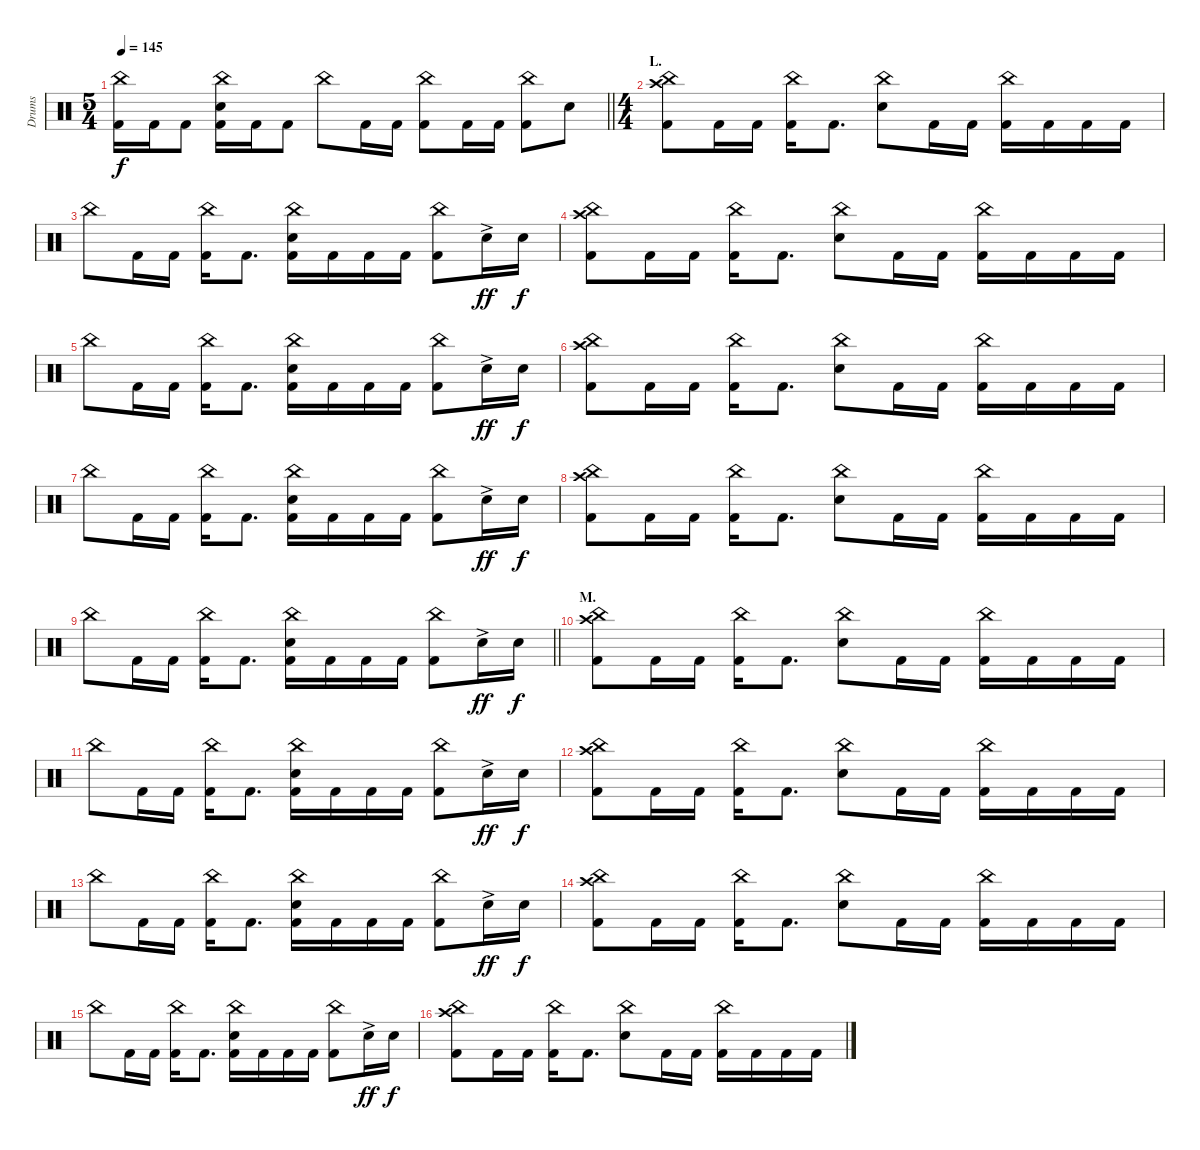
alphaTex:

\track ("Drums" "Drums") {instrument percussion}
\staff {score}
\articulation defaults
\ts (5 4)
\tempo 145
\clef neutral
\barLineRight lightlight
\ks c
("China (hit)" "Kick (hit) 2").16{dy f} "Kick (hit) 2".16 "Kick (hit) 2".8 ("China (hit)" "Electric Snare (hit)" "Kick (hit) 2").16 "Kick (hit) 2".16 "Kick (hit) 2".8 "China (hit)".8 "Kick (hit) 2".16 "Kick (hit) 2".16 ("China (hit)" "Kick (hit) 2").8 "Kick (hit) 2".16 "Kick (hit) 2".16 ("China (hit)" "Kick (hit) 2").8 "Electric Snare (hit)".8 |
\ts (4 4)
\section ("" "L.")
("China (hit)" "Crash high (hit)" "Kick (hit) 2").8 "Kick (hit) 2".16 "Kick (hit) 2".16 ("China (hit)" "Kick (hit) 2").16 "Kick (hit) 2".8{d} ("China (hit)" "Electric Snare (hit)").8 "Kick (hit) 2".16 "Kick (hit) 2".16 ("China (hit)" "Kick (hit) 2").16 "Kick (hit) 2".16 "Kick (hit) 2".16 "Kick (hit) 2".16 |
"China (hit)".8 "Kick (hit) 2".16 "Kick (hit) 2".16 ("China (hit)" "Kick (hit) 2").16 "Kick (hit) 2".8{d} ("China (hit)" "Electric Snare (hit)" "Kick (hit) 2").16 "Kick (hit) 2".16 "Kick (hit) 2".16 "Kick (hit) 2".16 ("China (hit)" "Kick (hit) 2").8 "Electric Snare (hit)"{ac}.16{dy ff} "Electric Snare (hit)".16{dy f} |
("China (hit)" "Crash high (hit)" "Kick (hit) 2").8 "Kick (hit) 2".16 "Kick (hit) 2".16 ("China (hit)" "Kick (hit) 2").16 "Kick (hit) 2".8{d} ("China (hit)" "Electric Snare (hit)").8 "Kick (hit) 2".16 "Kick (hit) 2".16 ("China (hit)" "Kick (hit) 2").16 "Kick (hit) 2".16 "Kick (hit) 2".16 "Kick (hit) 2".16 |
"China (hit)".8 "Kick (hit) 2".16 "Kick (hit) 2".16 ("China (hit)" "Kick (hit) 2").16 "Kick (hit) 2".8{d} ("China (hit)" "Electric Snare (hit)" "Kick (hit) 2").16 "Kick (hit) 2".16 "Kick (hit) 2".16 "Kick (hit) 2".16 ("China (hit)" "Kick (hit) 2").8 "Electric Snare (hit)"{ac}.16{dy ff} "Electric Snare (hit)".16{dy f} |
("China (hit)" "Crash high (hit)" "Kick (hit) 2").8 "Kick (hit) 2".16 "Kick (hit) 2".16 ("China (hit)" "Kick (hit) 2").16 "Kick (hit) 2".8{d} ("China (hit)" "Electric Snare (hit)").8 "Kick (hit) 2".16 "Kick (hit) 2".16 ("China (hit)" "Kick (hit) 2").16 "Kick (hit) 2".16 "Kick (hit) 2".16 "Kick (hit) 2".16 |
"China (hit)".8 "Kick (hit) 2".16 "Kick (hit) 2".16 ("China (hit)" "Kick (hit) 2").16 "Kick (hit) 2".8{d} ("China (hit)" "Electric Snare (hit)" "Kick (hit) 2").16 "Kick (hit) 2".16 "Kick (hit) 2".16 "Kick (hit) 2".16 ("China (hit)" "Kick (hit) 2").8 "Electric Snare (hit)"{ac}.16{dy ff} "Electric Snare (hit)".16{dy f} |
("China (hit)" "Crash high (hit)" "Kick (hit) 2").8 "Kick (hit) 2".16 "Kick (hit) 2".16 ("China (hit)" "Kick (hit) 2").16 "Kick (hit) 2".8{d} ("China (hit)" "Electric Snare (hit)").8 "Kick (hit) 2".16 "Kick (hit) 2".16 ("China (hit)" "Kick (hit) 2").16 "Kick (hit) 2".16 "Kick (hit) 2".16 "Kick (hit) 2".16 |
\barLineRight lightlight "China (hit)".8 "Kick (hit) 2".16 "Kick (hit) 2".16
("China (hit)" "Kick (hit) 2").16 "Kick (hit) 2".8{d} ("China (hit)" "Electric Snare (hit)" "Kick (hit) 2").16 "Kick (hit) 2".16 "Kick (hit) 2".16 "Kick (hit) 2".16 ("China (hit)" "Kick (hit) 2").8 "Electric Snare (hit)"{ac}.16{dy ff} "Electric Snare (hit)".16{dy f} |
\section ("" "M.")
("China (hit)" "Crash high (hit)" "Kick (hit) 2").8 "Kick (hit) 2".16 "Kick (hit) 2".16 ("China (hit)" "Kick (hit) 2").16 "Kick (hit) 2".8{d} ("China (hit)" "Electric Snare (hit)").8 "Kick (hit) 2".16 "Kick (hit) 2".16 ("China (hit)" "Kick (hit) 2").16 "Kick (hit) 2".16 "Kick (hit) 2".16 "Kick (hit) 2".16 |
"China (hit)".8 "Kick (hit) 2".16 "Kick (hit) 2".16 ("China (hit)" "Kick (hit) 2").16 "Kick (hit) 2".8{d} ("China (hit)" "Electric Snare (hit)" "Kick (hit) 2").16 "Kick (hit) 2".16 "Kick (hit) 2".16 "Kick (hit) 2".16 ("China (hit)" "Kick (hit) 2").8 "Electric Snare (hit)"{ac}.16{dy ff} "Electric Snare (hit)".16{dy f} |
("China (hit)" "Crash high (hit)" "Kick (hit) 2").8 "Kick (hit) 2".16 "Kick (hit) 2".16 ("China (hit)" "Kick (hit) 2").16 "Kick (hit) 2".8{d} ("China (hit)" "Electric Snare (hit)").8 "Kick (hit) 2".16 "Kick (hit) 2".16 ("China (hit)" "Kick (hit) 2").16 "Kick (hit) 2".16 "Kick (hit) 2".16 "Kick (hit) 2".16 |
"China (hit)".8 "Kick (hit) 2".16 "Kick (hit) 2".16 ("China (hit)" "Kick (hit) 2").16 "Kick (hit) 2".8{d} ("China (hit)" "Electric Snare (hit)" "Kick (hit) 2").16 "Kick (hit) 2".16 "Kick (hit) 2".16 "Kick (hit) 2".16 ("China (hit)" "Kick (hit) 2").8 "Electric Snare (hit)"{ac}.16{dy ff} "Electric Snare (hit)".16{dy f} |
("China (hit)" "Crash high (hit)" "Kick (hit) 2").8 "Kick (hit) 2".16 "Kick (hit) 2".16 ("China (hit)" "Kick (hit) 2").16 "Kick (hit) 2".8{d} ("China (hit)" "Electric Snare (hit)").8 "Kick (hit) 2".16 "Kick (hit) 2".16 ("China (hit)" "Kick (hit) 2").16 "Kick (hit) 2".16 "Kick (hit) 2".16 "Kick (hit) 2".16 |
"China (hit)".8 "Kick (hit) 2".16 "Kick (hit) 2".16 ("China (hit)" "Kick (hit) 2").16 "Kick (hit) 2".8{d} ("China (hit)" "Electric Snare (hit)" "Kick (hit) 2").16 "Kick (hit) 2".16 "Kick (hit) 2".16 "Kick (hit) 2".16 ("China (hit)" "Kick (hit) 2").8 "Electric Snare (hit)"{ac}.16{dy ff} "Electric Snare (hit)".16{dy f} |
("China (hit)" "Crash high (hit)" "Kick (hit) 2").8 "Kick (hit) 2".16 "Kick (hit) 2".16 ("China (hit)" "Kick (hit) 2").16 "Kick (hit) 2".8{d} ("China (hit)" "Electric Snare (hit)").8 "Kick (hit) 2".16 "Kick (hit) 2".16 ("China (hit)" "Kick (hit) 2").16 "Kick (hit) 2".16 "Kick (hit) 2".16 "Kick (hit) 2".16
